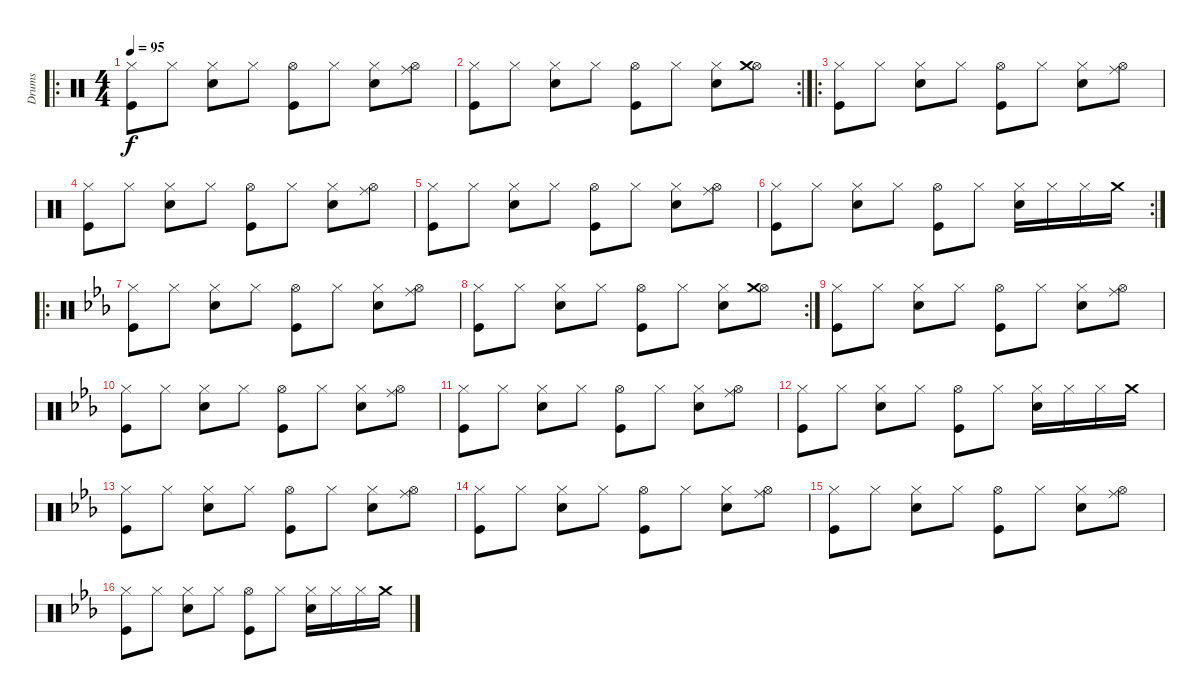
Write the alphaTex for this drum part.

\track ("Drums" "Drums") {instrument percussion}
\staff {score}
\articulation defaults
\ro
\ts (4 4)
\tempo 95
\clef neutral
\ks c
("Hi-Hat (closed)" "Kick (hit)").8{dy f} "Hi-Hat (closed)".8 ("Hi-Hat (closed)" "Snare (hit) 2").8 "Hi-Hat (closed)".8 ("Hi-Hat (open)" "Kick (hit)").8 "Hi-Hat (closed)".8 ("Hi-Hat (closed)" "Snare (hit) 2").8 ("Hi-Hat (open)" "Ride (middle)").8 |
\rc 2
("Hi-Hat (closed)" "Kick (hit)").8 "Hi-Hat (closed)".8 ("Hi-Hat (closed)" "Snare (hit) 2").8 "Hi-Hat (closed)".8 ("Hi-Hat (open)" "Kick (hit)").8 "Hi-Hat (closed)".8 ("Hi-Hat (closed)" "Snare (hit) 2").8 ("Hi-Hat (open)" "Crash medium (hit)").8 |
\ro
("Hi-Hat (closed)" "Kick (hit)").8 "Hi-Hat (closed)".8 ("Hi-Hat (closed)" "Snare (hit) 2").8 "Hi-Hat (closed)".8 ("Hi-Hat (open)" "Kick (hit)").8 "Hi-Hat (closed)".8 ("Hi-Hat (closed)" "Snare (hit) 2").8 ("Hi-Hat (open)" "Ride (middle)").8 |
("Hi-Hat (closed)" "Kick (hit)").8 "Hi-Hat (closed)".8 ("Hi-Hat (closed)" "Snare (hit) 2").8 "Hi-Hat (closed)".8 ("Hi-Hat (open)" "Kick (hit)").8 "Hi-Hat (closed)".8 ("Hi-Hat (closed)" "Snare (hit) 2").8 ("Hi-Hat (open)" "Ride (middle)").8 |
("Hi-Hat (closed)" "Kick (hit)").8 "Hi-Hat (closed)".8 ("Hi-Hat (closed)" "Snare (hit) 2").8 "Hi-Hat (closed)".8 ("Hi-Hat (open)" "Kick (hit)").8 "Hi-Hat (closed)".8 ("Hi-Hat (closed)" "Snare (hit) 2").8 ("Hi-Hat (open)" "Ride (middle)").8 |
\rc 2
("Hi-Hat (closed)" "Kick (hit)").8 "Hi-Hat (closed)".8 ("Hi-Hat (closed)" "Snare (hit) 2").8 "Hi-Hat (closed)".8 ("Hi-Hat (open)" "Kick (hit)").8 "Hi-Hat (closed)".8 ("Hi-Hat (closed)" "Snare (hit) 2").16 "Hi-Hat (closed)".16 "Hi-Hat (closed)".16 "Crash medium (hit)".16 |
\ro
\ks eb
("Hi-Hat (closed)" "Kick (hit)").8 "Hi-Hat (closed)".8 ("Hi-Hat (closed)" "Snare (hit) 2").8 "Hi-Hat (closed)".8 ("Hi-Hat (open)" "Kick (hit)").8 "Hi-Hat (closed)".8 ("Hi-Hat (closed)" "Snare (hit) 2").8 ("Hi-Hat (open)" "Ride (middle)").8 |
\rc 2
("Hi-Hat (closed)" "Kick (hit)").8 "Hi-Hat (closed)".8 ("Hi-Hat (closed)" "Snare (hit) 2").8 "Hi-Hat (closed)".8 ("Hi-Hat (open)" "Kick (hit)").8 "Hi-Hat (closed)".8 ("Hi-Hat (closed)" "Snare (hit) 2").8 ("Hi-Hat (open)" "Crash medium (hit)").8 |
("Hi-Hat (closed)" "Kick (hit)").8{volume 12} "Hi-Hat (closed)".8 ("Hi-Hat (closed)" "Snare (hit) 2").8 "Hi-Hat (closed)".8 ("Hi-Hat (open)" "Kick (hit)").8 "Hi-Hat (closed)".8 ("Hi-Hat (closed)" "Snare (hit) 2").8 ("Hi-Hat (open)" "Ride (middle)").8 |
("Hi-Hat (closed)" "Kick (hit)").8 "Hi-Hat (closed)".8 ("Hi-Hat (closed)" "Snare (hit) 2").8 "Hi-Hat (closed)".8 ("Hi-Hat (open)" "Kick (hit)").8 "Hi-Hat (closed)".8 ("Hi-Hat (closed)" "Snare (hit) 2").8 ("Hi-Hat (open)" "Ride (middle)").8 |
("Hi-Hat (closed)" "Kick (hit)").8{volume 8} "Hi-Hat (closed)".8 ("Hi-Hat (closed)" "Snare (hit) 2").8 "Hi-Hat (closed)".8 ("Hi-Hat (open)" "Kick (hit)").8 "Hi-Hat (closed)".8 ("Hi-Hat (closed)" "Snare (hit) 2").8 ("Hi-Hat (open)" "Ride (middle)").8 |
("Hi-Hat (closed)" "Kick (hit)").8 "Hi-Hat (closed)".8 ("Hi-Hat (closed)" "Snare (hit) 2").8 "Hi-Hat (closed)".8 ("Hi-Hat (open)" "Kick (hit)").8 "Hi-Hat (closed)".8 ("Hi-Hat (closed)" "Snare (hit) 2").16 "Hi-Hat (closed)".16 "Hi-Hat (closed)".16 "Crash medium (hit)".16 |
("Hi-Hat (closed)" "Kick (hit)").8{volume 4} "Hi-Hat (closed)".8 ("Hi-Hat (closed)" "Snare (hit) 2").8 "Hi-Hat (closed)".8 ("Hi-Hat (open)" "Kick (hit)").8 "Hi-Hat (closed)".8 ("Hi-Hat (closed)" "Snare (hit) 2").8 ("Hi-Hat (open)" "Ride (middle)").8 |
("Hi-Hat (closed)" "Kick (hit)").8 "Hi-Hat (closed)".8 ("Hi-Hat (closed)" "Snare (hit) 2").8 "Hi-Hat (closed)".8 ("Hi-Hat (open)" "Kick (hit)").8 "Hi-Hat (closed)".8 ("Hi-Hat (closed)" "Snare (hit) 2").8 ("Hi-Hat (open)" "Ride (middle)").8 |
("Hi-Hat (closed)" "Kick (hit)").8{volume 2} "Hi-Hat (closed)".8 ("Hi-Hat (closed)" "Snare (hit) 2").8 "Hi-Hat (closed)".8 ("Hi-Hat (open)" "Kick (hit)").8 "Hi-Hat (closed)".8 ("Hi-Hat (closed)" "Snare (hit) 2").8 ("Hi-Hat (open)" "Ride (middle)").8 |
("Hi-Hat (closed)" "Kick (hit)").8 "Hi-Hat (closed)".8 ("Hi-Hat (closed)" "Snare (hit) 2").8 "Hi-Hat (closed)".8 ("Hi-Hat (open)" "Kick (hit)").8 "Hi-Hat (closed)".8 ("Hi-Hat (closed)" "Snare (hit) 2").16 "Hi-Hat (closed)".16 "Hi-Hat (closed)".16 "Crash medium (hit)".16
